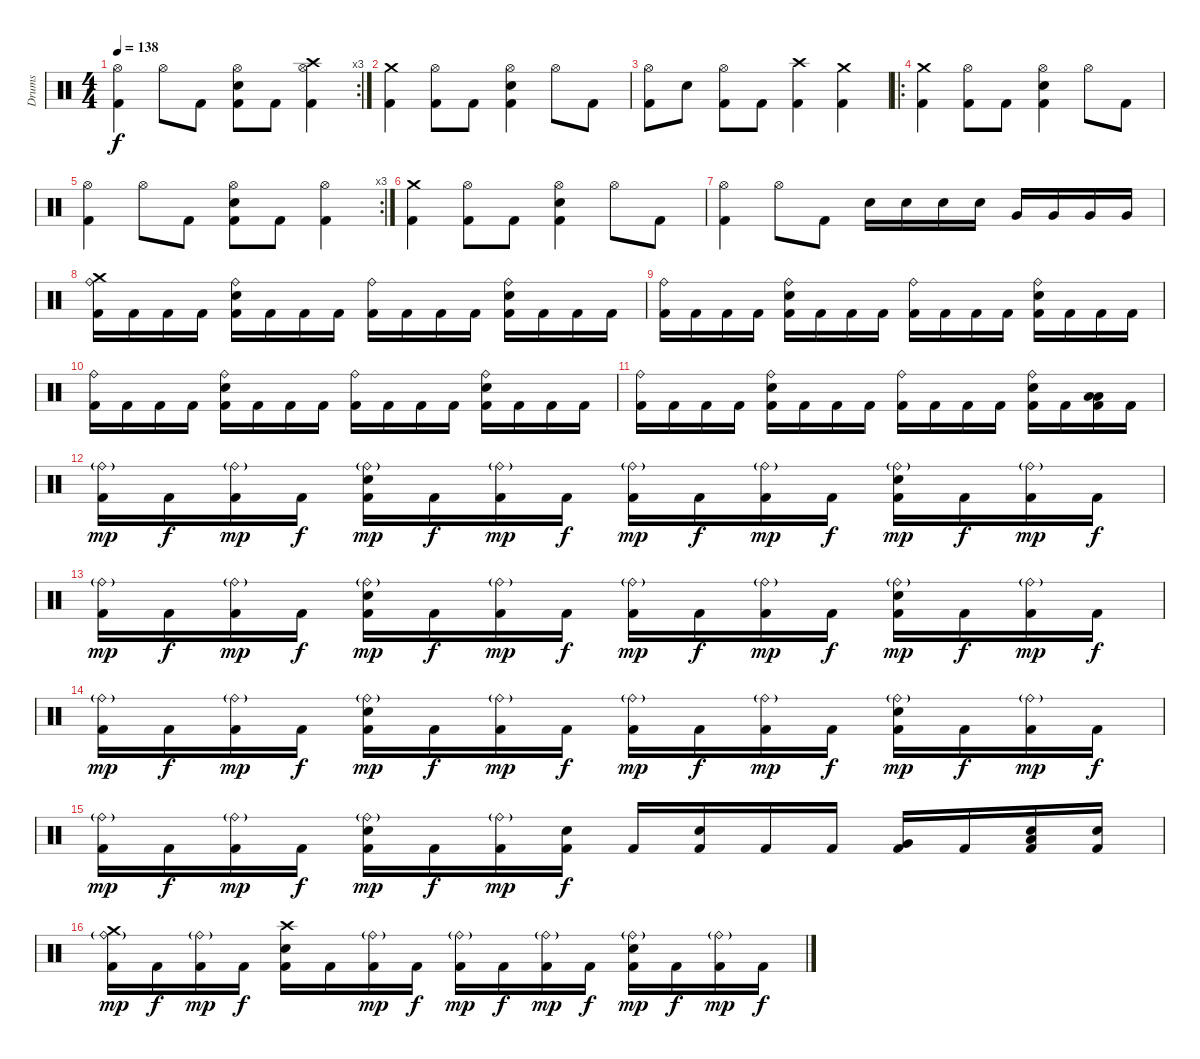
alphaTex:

\track ("Drums" "Drums") {instrument percussion}
\staff {score}
\articulation defaults
\rc 3
\ts (4 4)
\tempo 138
\clef neutral
\ks c
("Hi-Hat (open)" "Kick (hit) 2").4{dy f} "Hi-Hat (open)".8 "Kick (hit) 2".8 ("Hi-Hat (open)" "Electric Snare (hit)" "Kick (hit) 2").8 "Kick (hit) 2".8 ("Crash high (hit)" "Hi-Hat (open)" "Kick (hit) 2").4 |
("Crash medium (hit)" "Kick (hit) 2").4 ("Hi-Hat (open)" "Kick (hit) 2").8 "Kick (hit) 2".8 ("Hi-Hat (open)" "Electric Snare (hit)" "Kick (hit) 2").4 "Hi-Hat (open)".8 "Kick (hit) 2".8 |
("Hi-Hat (open)" "Kick (hit) 2").8 "Electric Snare (hit)".8 ("Hi-Hat (open)" "Kick (hit) 2").8 "Kick (hit) 2".8 ("Crash high (hit)" "Kick (hit) 2").4 ("Crash medium (hit)" "Kick (hit) 2").4 |
\ro
("Crash medium (hit)" "Kick (hit) 2").4 ("Hi-Hat (open)" "Kick (hit) 2").8 "Kick (hit) 2".8 ("Hi-Hat (open)" "Electric Snare (hit)" "Kick (hit) 2").4 "Hi-Hat (open)".8 "Kick (hit) 2".8 |
\rc 3
("Hi-Hat (open)" "Kick (hit) 2").4 "Hi-Hat (open)".8 "Kick (hit) 2".8 ("Hi-Hat (open)" "Electric Snare (hit)" "Kick (hit) 2").8 "Kick (hit) 2".8 ("Hi-Hat (open)" "Kick (hit) 2").4 |
("Crash medium (hit)" "Kick (hit) 2").4 ("Hi-Hat (open)" "Kick (hit) 2").8 "Kick (hit) 2".8 ("Hi-Hat (open)" "Electric Snare (hit)" "Kick (hit) 2").4 "Hi-Hat (open)".8 "Kick (hit) 2".8 |
("Hi-Hat (open)" "Kick (hit) 2").4 "Hi-Hat (open)".8 "Kick (hit) 2".8 "Electric Snare (hit)".16 "Electric Snare (hit)".16 "Electric Snare (hit)".16 "Electric Snare (hit)".16 "Very Low Tom (hit)".16 "Very Low Tom (hit)".16 "Very Low Tom (hit)".16 "Very Low Tom (hit)".16 |
("Crash medium (hit)" "Ride (bell)" "Kick (hit) 2").16 "Kick (hit) 2".16 "Kick (hit) 2".16 "Kick (hit) 2".16 ("Ride (bell)" "Electric Snare (hit)" "Kick (hit) 2").16 "Kick (hit) 2".16 "Kick (hit) 2".16 "Kick (hit) 2".16 ("Ride (bell)" "Kick (hit) 2").16 "Kick (hit) 2".16 "Kick (hit) 2".16 "Kick (hit) 2".16 ("Ride (bell)" "Electric Snare (hit)" "Kick (hit) 2").16 "Kick (hit) 2".16 "Kick (hit) 2".16 "Kick (hit) 2".16 |
("Ride (bell)" "Kick (hit) 2").16 "Kick (hit) 2".16 "Kick (hit) 2".16 "Kick (hit) 2".16 ("Ride (bell)" "Electric Snare (hit)" "Kick (hit) 2").16 "Kick (hit) 2".16 "Kick (hit) 2".16 "Kick (hit) 2".16 ("Ride (bell)" "Kick (hit) 2").16 "Kick (hit) 2".16 "Kick (hit) 2".16 "Kick (hit) 2".16 ("Ride (bell)" "Electric Snare (hit)" "Kick (hit) 2").16 "Kick (hit) 2".16 "Kick (hit) 2".16 "Kick (hit) 2".16 |
("Ride (bell)" "Kick (hit) 2").16 "Kick (hit) 2".16 "Kick (hit) 2".16 "Kick (hit) 2".16 ("Ride (bell)" "Electric Snare (hit)" "Kick (hit) 2").16 "Kick (hit) 2".16 "Kick (hit) 2".16 "Kick (hit) 2".16 ("Ride (bell)" "Kick (hit) 2").16 "Kick (hit) 2".16 "Kick (hit) 2".16 "Kick (hit) 2".16 ("Ride (bell)" "Electric Snare (hit)" "Kick (hit) 2").16 "Kick (hit) 2".16 "Kick (hit) 2".16 "Kick (hit) 2".16 |
("Ride (bell)" "Kick (hit) 2").16 "Kick (hit) 2".16 "Kick (hit) 2".16 "Kick (hit) 2".16 ("Ride (bell)" "Electric Snare (hit)" "Kick (hit) 2").16 "Kick (hit) 2".16 "Kick (hit) 2".16 "Kick (hit) 2".16 ("Ride (bell)" "Kick (hit) 2").16 "Kick (hit) 2".16 "Kick (hit) 2".16 "Kick (hit) 2".16 ("Ride (bell)" "Electric Snare (hit)" "Kick (hit) 2").16 "Kick (hit) 2".16 ("Low Floor Tom (hit)" "Low Floor Tom (hit)" "Kick (hit) 2").16 "Kick (hit) 2".16 |
("Ride (bell)"{g} "Kick (hit) 2").16{dy mp} "Kick (hit) 2".16{dy f} ("Ride (bell)"{g} "Kick (hit) 2").16{dy mp} "Kick (hit) 2".16{dy f} ("Ride (bell)"{g} "Electric Snare (hit)" "Kick (hit) 2").16{dy mp} "Kick (hit) 2".16{dy f} ("Ride (bell)"{g} "Kick (hit) 2").16{dy mp} "Kick (hit) 2".16{dy f} ("Ride (bell)"{g} "Kick (hit) 2").16{dy mp} "Kick (hit) 2".16{dy f} ("Ride (bell)"{g} "Kick (hit) 2").16{dy mp} "Kick (hit) 2".16{dy f} ("Ride (bell)"{g} "Electric Snare (hit)" "Kick (hit) 2").16{dy mp} "Kick (hit) 2".16{dy f} ("Ride (bell)"{g} "Kick (hit) 2").16{dy mp} "Kick (hit) 2".16{dy f} |
("Ride (bell)"{g} "Kick (hit) 2").16{dy mp} "Kick (hit) 2".16{dy f} ("Ride (bell)"{g} "Kick (hit) 2").16{dy mp} "Kick (hit) 2".16{dy f} ("Ride (bell)"{g} "Electric Snare (hit)" "Kick (hit) 2").16{dy mp} "Kick (hit) 2".16{dy f} ("Ride (bell)"{g} "Kick (hit) 2").16{dy mp} "Kick (hit) 2".16{dy f} ("Ride (bell)"{g} "Kick (hit) 2").16{dy mp} "Kick (hit) 2".16{dy f} ("Ride (bell)"{g} "Kick (hit) 2").16{dy mp} "Kick (hit) 2".16{dy f} ("Ride (bell)"{g} "Electric Snare (hit)" "Kick (hit) 2").16{dy mp} "Kick (hit) 2".16{dy f} ("Ride (bell)"{g} "Kick (hit) 2").16{dy mp} "Kick (hit) 2".16{dy f} |
("Ride (bell)"{g} "Kick (hit) 2").16{dy mp} "Kick (hit) 2".16{dy f} ("Ride (bell)"{g} "Kick (hit) 2").16{dy mp} "Kick (hit) 2".16{dy f} ("Ride (bell)"{g} "Electric Snare (hit)" "Kick (hit) 2").16{dy mp} "Kick (hit) 2".16{dy f} ("Ride (bell)"{g} "Kick (hit) 2").16{dy mp} "Kick (hit) 2".16{dy f} ("Ride (bell)"{g} "Kick (hit) 2").16{dy mp} "Kick (hit) 2".16{dy f} ("Ride (bell)"{g} "Kick (hit) 2").16{dy mp} "Kick (hit) 2".16{dy f} ("Ride (bell)"{g} "Electric Snare (hit)" "Kick (hit) 2").16{dy mp} "Kick (hit) 2".16{dy f} ("Ride (bell)"{g} "Kick (hit) 2").16{dy mp} "Kick (hit) 2".16{dy f} |
("Ride (bell)"{g} "Kick (hit) 2").16{dy mp} "Kick (hit) 2".16{dy f} ("Ride (bell)"{g} "Kick (hit) 2").16{dy mp} "Kick (hit) 2".16{dy f} ("Ride (bell)"{g} "Electric Snare (hit)" "Kick (hit) 2").16{dy mp} "Kick (hit) 2".16{dy f} ("Ride (bell)"{g} "Kick (hit) 2").16{dy mp} ("Electric Snare (hit)" "Kick (hit) 2").16{dy f} "Kick (hit) 2".16 ("Electric Snare (hit)" "Kick (hit) 2").16 "Kick (hit) 2".16 "Kick (hit) 2".16 ("Very Low Tom (hit)" "Kick (hit) 2").16 "Kick (hit) 2".16 ("Low Tom (hit)" "Electric Snare (hit)" "Kick (hit) 2").16 ("Electric Snare (hit)" "Kick (hit) 2").16 |
("Crash medium (hit)" "Ride (bell)"{g} "Kick (hit) 2").16{dy mp} "Kick (hit) 2".16{dy f} ("Ride (bell)"{g} "Kick (hit) 2").16{dy mp} "Kick (hit) 2".16{dy f} ("Crash high (hit)" "Electric Snare (hit)" "Kick (hit) 2").16 "Kick (hit) 2".16 ("Ride (bell)"{g} "Kick (hit) 2").16{dy mp} "Kick (hit) 2".16{dy f} ("Ride (bell)"{g} "Kick (hit) 2").16{dy mp} "Kick (hit) 2".16{dy f} ("Ride (bell)"{g} "Kick (hit) 2").16{dy mp} "Kick (hit) 2".16{dy f} ("Ride (bell)"{g} "Electric Snare (hit)" "Kick (hit) 2").16{dy mp} "Kick (hit) 2".16{dy f} ("Ride (bell)"{g} "Kick (hit) 2").16{dy mp} "Kick (hit) 2".16{dy f}
